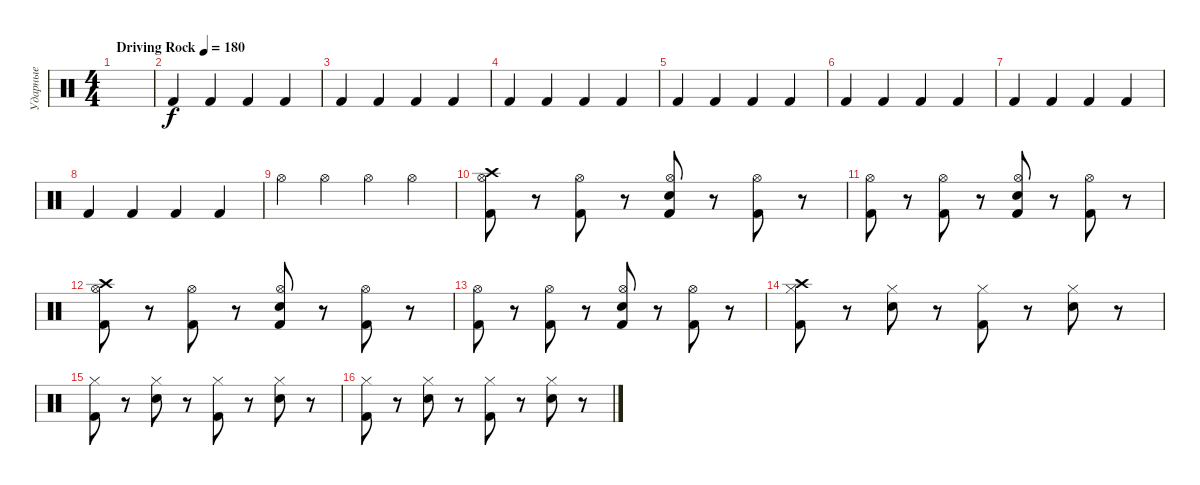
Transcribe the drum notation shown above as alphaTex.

\track ("Ударные" "Ударные") {instrument percussion}
\staff {score}
\articulation defaults
\ts (4 4)
\tempo (180 "Driving Rock")
\clef neutral
\ks c
|
"Kick (hit) 2".4 "Kick (hit) 2".4 "Kick (hit) 2".4 "Kick (hit) 2".4 |
"Kick (hit) 2".4 "Kick (hit) 2".4 "Kick (hit) 2".4 "Kick (hit) 2".4 |
"Kick (hit) 2".4 "Kick (hit) 2".4 "Kick (hit) 2".4 "Kick (hit) 2".4 |
"Kick (hit) 2".4 "Kick (hit) 2".4 "Kick (hit) 2".4 "Kick (hit) 2".4 |
"Kick (hit) 2".4 "Kick (hit) 2".4 "Kick (hit) 2".4 "Kick (hit) 2".4 |
"Kick (hit) 2".4 "Kick (hit) 2".4 "Kick (hit) 2".4 "Kick (hit) 2".4 |
"Kick (hit) 2".4 "Kick (hit) 2".4 "Kick (hit) 2".4 "Kick (hit) 2".4 |
"Hi-Hat (open)".4 "Hi-Hat (open)".4 "Hi-Hat (open)".4 "Hi-Hat (open)".4 |
("Hi-Hat (open)" "Kick (hit) 2" "Crash high (hit)").8 r.8 ("Hi-Hat (open)" "Kick (hit) 2").8 r.8 ("Hi-Hat (open)" "Kick (hit) 2" "Snare (hit) 2").8 r.8 ("Hi-Hat (open)" "Kick (hit) 2").8 r.8 |
("Hi-Hat (open)" "Kick (hit) 2").8 r.8 ("Hi-Hat (open)" "Kick (hit) 2").8 r.8 ("Hi-Hat (open)" "Kick (hit) 2" "Snare (hit) 2").8 r.8 ("Hi-Hat (open)" "Kick (hit) 2").8 r.8 |
("Hi-Hat (open)" "Kick (hit) 2" "Crash high (hit)").8 r.8 ("Hi-Hat (open)" "Kick (hit) 2").8 r.8 ("Hi-Hat (open)" "Kick (hit) 2" "Snare (hit) 2").8 r.8 ("Hi-Hat (open)" "Kick (hit) 2").8 r.8 |
("Hi-Hat (open)" "Kick (hit) 2").8 r.8 ("Hi-Hat (open)" "Kick (hit) 2").8 r.8 ("Hi-Hat (open)" "Kick (hit) 2" "Snare (hit) 2").8 r.8 ("Hi-Hat (open)" "Kick (hit) 2").8 r.8 |
("Hi-Hat (closed)" "Kick (hit) 2" "Crash high (hit)").8 r.8 ("Hi-Hat (closed)" "Snare (hit) 2").8 r.8 ("Hi-Hat (closed)" "Kick (hit) 2").8 r.8 ("Hi-Hat (closed)" "Snare (hit) 2").8 r.8 |
("Hi-Hat (closed)" "Kick (hit) 2").8 r.8 ("Hi-Hat (closed)" "Snare (hit) 2").8 r.8 ("Hi-Hat (closed)" "Kick (hit) 2").8 r.8 ("Hi-Hat (closed)" "Snare (hit) 2").8 r.8 |
("Hi-Hat (closed)" "Kick (hit) 2").8 r.8 ("Hi-Hat (closed)" "Snare (hit) 2").8 r.8 ("Hi-Hat (closed)" "Kick (hit) 2").8 r.8 ("Hi-Hat (closed)" "Snare (hit) 2").8 r.8
